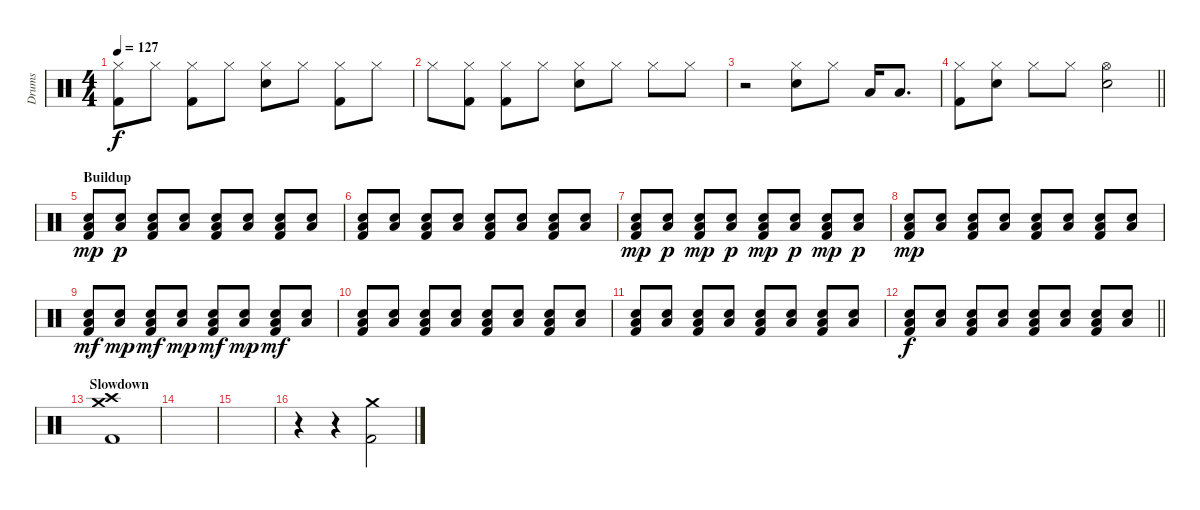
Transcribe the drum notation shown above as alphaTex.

\track ("Drums" "Drums") {instrument percussion}
\staff {score}
\articulation defaults
\ts (4 4)
\tempo 127
\clef neutral
\ks c
("Hi-Hat (closed)" "Kick (hit) 2").8{dy f} "Hi-Hat (closed)".8 ("Hi-Hat (closed)" "Kick (hit) 2").8 "Hi-Hat (closed)".8 ("Hi-Hat (closed)" "Electric Snare (hit)").8 "Hi-Hat (closed)".8 ("Hi-Hat (closed)" "Kick (hit) 2").8 "Hi-Hat (closed)".8 |
"Hi-Hat (closed)".8 ("Hi-Hat (closed)" "Kick (hit) 2").8 ("Hi-Hat (closed)" "Kick (hit) 2").8 "Hi-Hat (closed)".8 ("Hi-Hat (closed)" "Electric Snare (hit)").8 "Hi-Hat (closed)".8 "Hi-Hat (closed)".8 "Hi-Hat (closed)".8 |
r.2 ("Hi-Hat (closed)" "Electric Snare (hit)").8 "Hi-Hat (closed)".8 "Low Tom (hit)".16 "Low Tom (hit)".8{d} |
\barLineRight lightlight
("Hi-Hat (closed)" "Kick (hit) 2").8 ("Hi-Hat (closed)" "Electric Snare (hit)").8 "Hi-Hat (closed)".8 "Hi-Hat (closed)".8 ("Hi-Hat (open)" "Electric Snare (hit)").2 |
\section ("" "Buildup")
("Low Floor Tom (hit)" "Electric Snare (hit)" "Kick (hit) 2").8{dy mp} ("Low Floor Tom (hit)" "Electric Snare (hit)").8{dy p} ("Low Floor Tom (hit)" "Electric Snare (hit)" "Kick (hit) 2").8 ("Low Floor Tom (hit)" "Electric Snare (hit)").8 ("Low Floor Tom (hit)" "Electric Snare (hit)" "Kick (hit) 2").8 ("Low Floor Tom (hit)" "Electric Snare (hit)").8 ("Low Floor Tom (hit)" "Electric Snare (hit)" "Kick (hit) 2").8 ("Low Floor Tom (hit)" "Electric Snare (hit)").8 |
("Low Floor Tom (hit)" "Electric Snare (hit)" "Kick (hit) 2").8 ("Low Floor Tom (hit)" "Electric Snare (hit)").8 ("Low Floor Tom (hit)" "Electric Snare (hit)" "Kick (hit) 2").8 ("Low Floor Tom (hit)" "Electric Snare (hit)").8 ("Low Floor Tom (hit)" "Electric Snare (hit)" "Kick (hit) 2").8 ("Low Floor Tom (hit)" "Electric Snare (hit)").8 ("Low Floor Tom (hit)" "Electric Snare (hit)" "Kick (hit) 2").8 ("Low Floor Tom (hit)" "Electric Snare (hit)").8 |
("Low Floor Tom (hit)" "Electric Snare (hit)" "Kick (hit) 2").8{dy mp} ("Low Floor Tom (hit)" "Electric Snare (hit)").8{dy p} ("Low Floor Tom (hit)" "Electric Snare (hit)" "Kick (hit) 2").8{dy mp} ("Low Floor Tom (hit)" "Electric Snare (hit)").8{dy p} ("Low Floor Tom (hit)" "Electric Snare (hit)" "Kick (hit) 2").8{dy mp} ("Low Floor Tom (hit)" "Electric Snare (hit)").8{dy p} ("Low Floor Tom (hit)" "Electric Snare (hit)" "Kick (hit) 2").8{dy mp} ("Low Floor Tom (hit)" "Electric Snare (hit)").8{dy p} |
("Low Floor Tom (hit)" "Electric Snare (hit)" "Kick (hit) 2").8{dy mp} ("Low Floor Tom (hit)" "Electric Snare (hit)").8 ("Low Floor Tom (hit)" "Electric Snare (hit)" "Kick (hit) 2").8 ("Low Floor Tom (hit)" "Electric Snare (hit)").8 ("Low Floor Tom (hit)" "Electric Snare (hit)" "Kick (hit) 2").8 ("Low Floor Tom (hit)" "Electric Snare (hit)").8 ("Low Floor Tom (hit)" "Electric Snare (hit)" "Kick (hit) 2").8 ("Low Floor Tom (hit)" "Electric Snare (hit)").8 |
("Low Floor Tom (hit)" "Electric Snare (hit)" "Kick (hit) 2").8{dy mf} ("Low Floor Tom (hit)" "Electric Snare (hit)").8{dy mp} ("Low Floor Tom (hit)" "Electric Snare (hit)" "Kick (hit) 2").8{dy mf} ("Low Floor Tom (hit)" "Electric Snare (hit)").8{dy mp} ("Low Floor Tom (hit)" "Electric Snare (hit)" "Kick (hit) 2").8{dy mf} ("Low Floor Tom (hit)" "Electric Snare (hit)").8{dy mp} ("Low Floor Tom (hit)" "Electric Snare (hit)" "Kick (hit) 2").8{dy mf} ("Low Floor Tom (hit)" "Electric Snare (hit)").8 |
("Low Floor Tom (hit)" "Electric Snare (hit)" "Kick (hit) 2").8 ("Low Floor Tom (hit)" "Electric Snare (hit)").8 ("Low Floor Tom (hit)" "Electric Snare (hit)" "Kick (hit) 2").8 ("Low Floor Tom (hit)" "Electric Snare (hit)").8 ("Low Floor Tom (hit)" "Electric Snare (hit)" "Kick (hit) 2").8 ("Low Floor Tom (hit)" "Electric Snare (hit)").8 ("Low Floor Tom (hit)" "Electric Snare (hit)" "Kick (hit) 2").8 ("Low Floor Tom (hit)" "Electric Snare (hit)").8 |
("Low Floor Tom (hit)" "Electric Snare (hit)" "Kick (hit) 2").8 ("Low Floor Tom (hit)" "Electric Snare (hit)").8 ("Low Floor Tom (hit)" "Electric Snare (hit)" "Kick (hit) 2").8 ("Low Floor Tom (hit)" "Electric Snare (hit)").8 ("Low Floor Tom (hit)" "Electric Snare (hit)" "Kick (hit) 2").8 ("Low Floor Tom (hit)" "Electric Snare (hit)").8 ("Low Floor Tom (hit)" "Electric Snare (hit)" "Kick (hit) 2").8 ("Low Floor Tom (hit)" "Electric Snare (hit)").8 |
\barLineRight lightlight
("Low Floor Tom (hit)" "Electric Snare (hit)" "Kick (hit) 2").8{dy f} ("Low Floor Tom (hit)" "Electric Snare (hit)").8 ("Low Floor Tom (hit)" "Electric Snare (hit)" "Kick (hit) 2").8 ("Low Floor Tom (hit)" "Electric Snare (hit)").8 ("Low Floor Tom (hit)" "Electric Snare (hit)" "Kick (hit) 2").8 ("Low Floor Tom (hit)" "Electric Snare (hit)").8 ("Low Floor Tom (hit)" "Electric Snare (hit)" "Kick (hit) 2").8 ("Low Floor Tom (hit)" "Electric Snare (hit)").8 |
\section ("" "Slowdown")
("Crash high (hit)" "Crash medium (hit)" "Kick (hit) 2").1 |
|
|
r.4 r.4 ("Crash medium (hit)" "Kick (hit) 2").2
